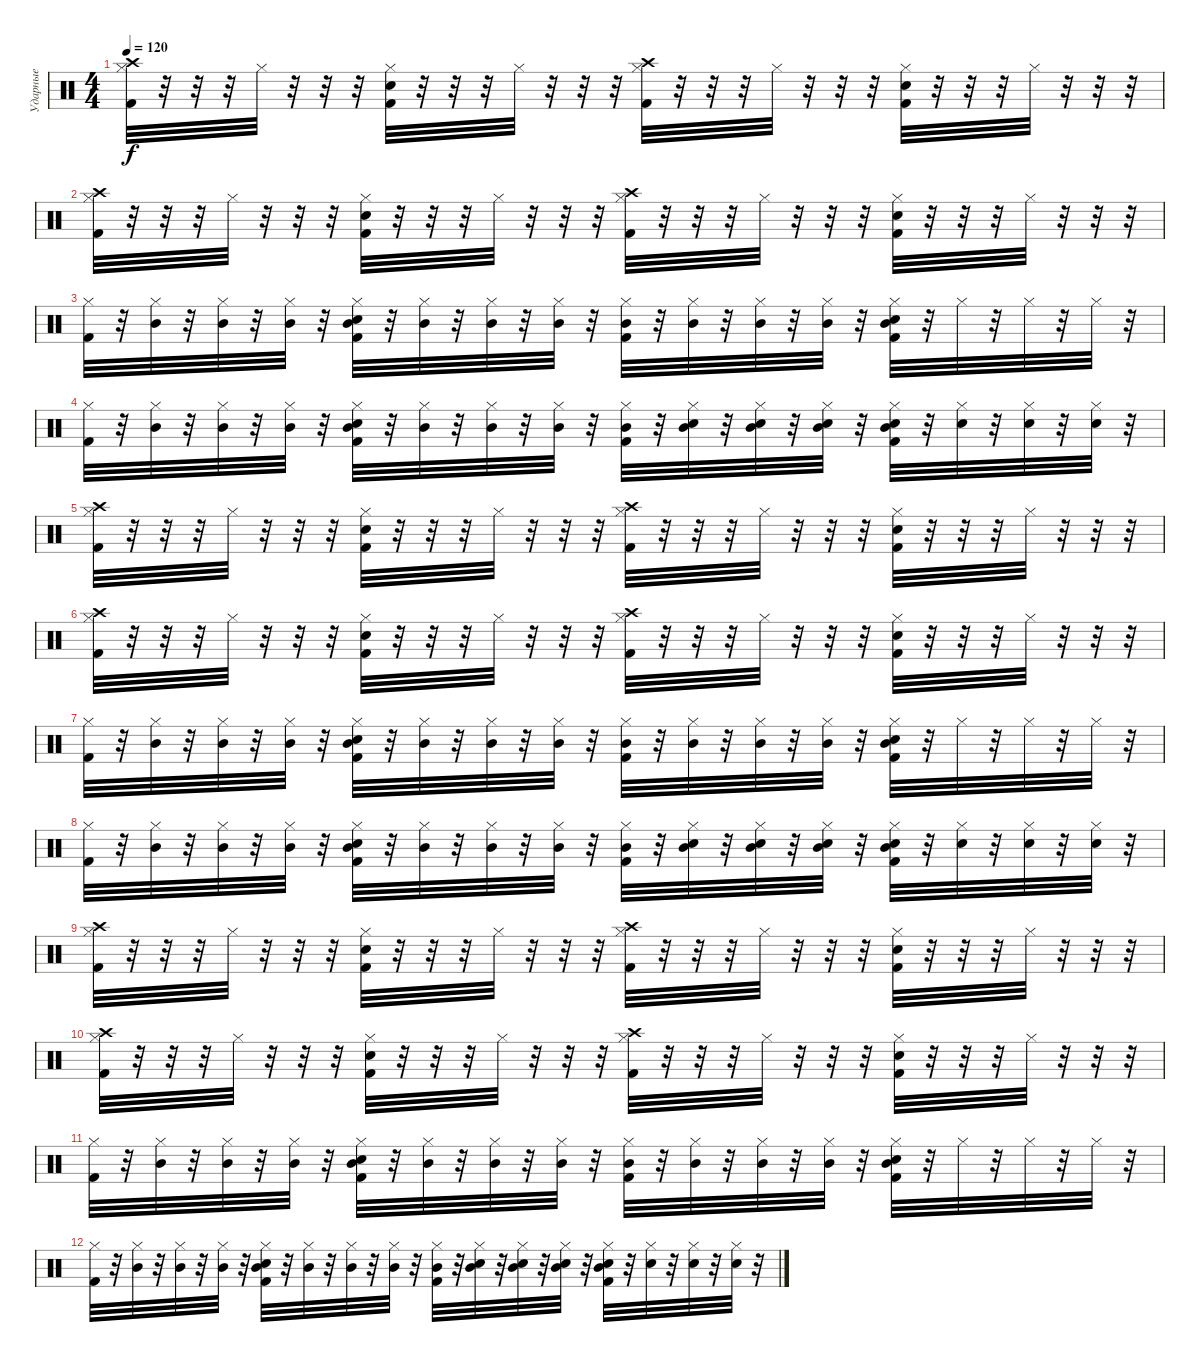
\track ("Ударные" "Ударные") {instrument percussion}
\staff {score}
\articulation defaults
\ts (4 4)
\tempo 120
\clef neutral
\ks c
("Crash high (hit)" "Hi-Hat (closed)" "Kick (hit) 2").32{dy f} r.32 r.32 r.32 "Hi-Hat (closed)".32 r.32 r.32 r.32 ("Hi-Hat (closed)" "Kick (hit) 2" "Snare (hit) 2").32 r.32 r.32 r.32 "Hi-Hat (closed)".32 r.32 r.32 r.32 ("Crash high (hit)" "Hi-Hat (closed)" "Kick (hit) 2").32 r.32 r.32 r.32 "Hi-Hat (closed)".32 r.32 r.32 r.32 ("Snare (hit) 2" "Kick (hit) 2" "Hi-Hat (closed)").32 r.32 r.32 r.32 "Hi-Hat (closed)".32 r.32 r.32 r.32 |
("Crash high (hit)" "Hi-Hat (closed)" "Kick (hit) 2").32 r.32 r.32 r.32 "Hi-Hat (closed)".32 r.32 r.32 r.32 ("Hi-Hat (closed)" "Kick (hit) 2" "Snare (hit) 2").32 r.32 r.32 r.32 "Hi-Hat (closed)".32 r.32 r.32 r.32 ("Crash high (hit)" "Hi-Hat (closed)" "Kick (hit) 2").32 r.32 r.32 r.32 "Hi-Hat (closed)".32 r.32 r.32 r.32 ("Snare (hit) 2" "Kick (hit) 2" "Hi-Hat (closed)").32 r.32 r.32 r.32 "Hi-Hat (closed)".32 r.32 r.32 r.32 |
("Hi-Hat (closed)" "Kick (hit) 2").32 r.32 ("Hi-Hat (closed)" "Mid Tom (hit)").32 r.32 ("Hi-Hat (closed)" "Mid Tom (hit)").32 r.32 ("Hi-Hat (closed)" "Mid Tom (hit)").32 r.32 ("Hi-Hat (closed)" "Kick (hit) 2" "Snare (hit) 2" "Mid Tom (hit)").32 r.32 ("Hi-Hat (closed)" "Mid Tom (hit)").32 r.32 ("Hi-Hat (closed)" "Mid Tom (hit)").32 r.32 ("Hi-Hat (closed)" "Mid Tom (hit)").32 r.32 ("Hi-Hat (closed)" "Kick (hit) 2" "Mid Tom (hit)").32 r.32 ("Hi-Hat (closed)" "Mid Tom (hit)").32 r.32 ("Hi-Hat (closed)" "Mid Tom (hit)").32 r.32 ("Hi-Hat (closed)" "Mid Tom (hit)").32 r.32 ("Snare (hit) 2" "Kick (hit) 2" "Hi-Hat (closed)" "Mid Tom (hit)").32 r.32 "Hi-Hat (closed)".32 r.32 "Hi-Hat (closed)".32 r.32 "Hi-Hat (closed)".32 r.32 |
("Hi-Hat (closed)" "Kick (hit) 2").32 r.32 ("Hi-Hat (closed)" "Mid Tom (hit)").32 r.32 ("Hi-Hat (closed)" "Mid Tom (hit)").32 r.32 ("Hi-Hat (closed)" "Mid Tom (hit)").32 r.32 ("Hi-Hat (closed)" "Kick (hit) 2" "Snare (hit) 2" "Mid Tom (hit)").32 r.32 ("Hi-Hat (closed)" "Mid Tom (hit)").32 r.32 ("Hi-Hat (closed)" "Mid Tom (hit)").32 r.32 ("Hi-Hat (closed)" "Mid Tom (hit)").32 r.32 ("Hi-Hat (closed)" "Kick (hit) 2" "Mid Tom (hit)").32 r.32 ("Snare (hit) 2" "Hi-Hat (closed)" "Mid Tom (hit)").32 r.32 ("Snare (hit) 2" "Hi-Hat (closed)" "Mid Tom (hit)").32 r.32 ("Snare (hit) 2" "Hi-Hat (closed)" "Mid Tom (hit)").32 r.32 ("Snare (hit) 2" "Kick (hit) 2" "Hi-Hat (closed)" "Mid Tom (hit)").32 r.32 ("Snare (hit) 2" "Hi-Hat (closed)").32 r.32 ("Snare (hit) 2" "Hi-Hat (closed)").32 r.32 ("Snare (hit) 2" "Hi-Hat (closed)").32 r.32 |
("Crash high (hit)" "Hi-Hat (closed)" "Kick (hit) 2").32 r.32 r.32 r.32 "Hi-Hat (closed)".32 r.32 r.32 r.32 ("Hi-Hat (closed)" "Kick (hit) 2" "Snare (hit) 2").32 r.32 r.32 r.32 "Hi-Hat (closed)".32 r.32 r.32 r.32 ("Crash high (hit)" "Hi-Hat (closed)" "Kick (hit) 2").32 r.32 r.32 r.32 "Hi-Hat (closed)".32 r.32 r.32 r.32 ("Snare (hit) 2" "Kick (hit) 2" "Hi-Hat (closed)").32 r.32 r.32 r.32 "Hi-Hat (closed)".32 r.32 r.32 r.32 |
("Crash high (hit)" "Hi-Hat (closed)" "Kick (hit) 2").32 r.32 r.32 r.32 "Hi-Hat (closed)".32 r.32 r.32 r.32 ("Hi-Hat (closed)" "Kick (hit) 2" "Snare (hit) 2").32 r.32 r.32 r.32 "Hi-Hat (closed)".32 r.32 r.32 r.32 ("Crash high (hit)" "Hi-Hat (closed)" "Kick (hit) 2").32 r.32 r.32 r.32 "Hi-Hat (closed)".32 r.32 r.32 r.32 ("Snare (hit) 2" "Kick (hit) 2" "Hi-Hat (closed)").32 r.32 r.32 r.32 "Hi-Hat (closed)".32 r.32 r.32 r.32 |
("Hi-Hat (closed)" "Kick (hit) 2").32 r.32 ("Hi-Hat (closed)" "Mid Tom (hit)").32 r.32 ("Hi-Hat (closed)" "Mid Tom (hit)").32 r.32 ("Hi-Hat (closed)" "Mid Tom (hit)").32 r.32 ("Hi-Hat (closed)" "Kick (hit) 2" "Snare (hit) 2" "Mid Tom (hit)").32 r.32 ("Hi-Hat (closed)" "Mid Tom (hit)").32 r.32 ("Hi-Hat (closed)" "Mid Tom (hit)").32 r.32 ("Hi-Hat (closed)" "Mid Tom (hit)").32 r.32 ("Hi-Hat (closed)" "Kick (hit) 2" "Mid Tom (hit)").32 r.32 ("Hi-Hat (closed)" "Mid Tom (hit)").32 r.32 ("Hi-Hat (closed)" "Mid Tom (hit)").32 r.32 ("Hi-Hat (closed)" "Mid Tom (hit)").32 r.32 ("Snare (hit) 2" "Kick (hit) 2" "Hi-Hat (closed)" "Mid Tom (hit)").32 r.32 "Hi-Hat (closed)".32 r.32 "Hi-Hat (closed)".32 r.32 "Hi-Hat (closed)".32 r.32 |
("Hi-Hat (closed)" "Kick (hit) 2").32 r.32 ("Hi-Hat (closed)" "Mid Tom (hit)").32 r.32 ("Hi-Hat (closed)" "Mid Tom (hit)").32 r.32 ("Hi-Hat (closed)" "Mid Tom (hit)").32 r.32 ("Hi-Hat (closed)" "Kick (hit) 2" "Snare (hit) 2" "Mid Tom (hit)").32 r.32 ("Hi-Hat (closed)" "Mid Tom (hit)").32 r.32 ("Hi-Hat (closed)" "Mid Tom (hit)").32 r.32 ("Hi-Hat (closed)" "Mid Tom (hit)").32 r.32 ("Hi-Hat (closed)" "Kick (hit) 2" "Mid Tom (hit)").32 r.32 ("Snare (hit) 2" "Hi-Hat (closed)" "Mid Tom (hit)").32 r.32 ("Snare (hit) 2" "Hi-Hat (closed)" "Mid Tom (hit)").32 r.32 ("Snare (hit) 2" "Hi-Hat (closed)" "Mid Tom (hit)").32 r.32 ("Snare (hit) 2" "Kick (hit) 2" "Hi-Hat (closed)" "Mid Tom (hit)").32 r.32 ("Snare (hit) 2" "Hi-Hat (closed)").32 r.32 ("Snare (hit) 2" "Hi-Hat (closed)").32 r.32 ("Snare (hit) 2" "Hi-Hat (closed)").32 r.32 |
("Crash high (hit)" "Hi-Hat (closed)" "Kick (hit) 2").32 r.32 r.32 r.32 "Hi-Hat (closed)".32 r.32 r.32 r.32 ("Hi-Hat (closed)" "Kick (hit) 2" "Snare (hit) 2").32 r.32 r.32 r.32 "Hi-Hat (closed)".32 r.32 r.32 r.32 ("Crash high (hit)" "Hi-Hat (closed)" "Kick (hit) 2").32 r.32 r.32 r.32 "Hi-Hat (closed)".32 r.32 r.32 r.32 ("Snare (hit) 2" "Kick (hit) 2" "Hi-Hat (closed)").32 r.32 r.32 r.32 "Hi-Hat (closed)".32 r.32 r.32 r.32 |
("Crash high (hit)" "Hi-Hat (closed)" "Kick (hit) 2").32 r.32 r.32 r.32 "Hi-Hat (closed)".32 r.32 r.32 r.32 ("Hi-Hat (closed)" "Kick (hit) 2" "Snare (hit) 2").32 r.32 r.32 r.32 "Hi-Hat (closed)".32 r.32 r.32 r.32 ("Crash high (hit)" "Hi-Hat (closed)" "Kick (hit) 2").32 r.32 r.32 r.32 "Hi-Hat (closed)".32 r.32 r.32 r.32 ("Snare (hit) 2" "Kick (hit) 2" "Hi-Hat (closed)").32 r.32 r.32 r.32 "Hi-Hat (closed)".32 r.32 r.32 r.32 |
("Hi-Hat (closed)" "Kick (hit) 2").32 r.32 ("Hi-Hat (closed)" "Mid Tom (hit)").32 r.32 ("Hi-Hat (closed)" "Mid Tom (hit)").32 r.32 ("Hi-Hat (closed)" "Mid Tom (hit)").32 r.32 ("Hi-Hat (closed)" "Kick (hit) 2" "Snare (hit) 2" "Mid Tom (hit)").32 r.32 ("Hi-Hat (closed)" "Mid Tom (hit)").32 r.32 ("Hi-Hat (closed)" "Mid Tom (hit)").32 r.32 ("Hi-Hat (closed)" "Mid Tom (hit)").32 r.32 ("Hi-Hat (closed)" "Kick (hit) 2" "Mid Tom (hit)").32 r.32 ("Hi-Hat (closed)" "Mid Tom (hit)").32 r.32 ("Hi-Hat (closed)" "Mid Tom (hit)").32 r.32 ("Hi-Hat (closed)" "Mid Tom (hit)").32 r.32 ("Snare (hit) 2" "Kick (hit) 2" "Hi-Hat (closed)" "Mid Tom (hit)").32 r.32 "Hi-Hat (closed)".32 r.32 "Hi-Hat (closed)".32 r.32 "Hi-Hat (closed)".32 r.32 |
("Hi-Hat (closed)" "Kick (hit) 2").32 r.32 ("Hi-Hat (closed)" "Mid Tom (hit)").32 r.32 ("Hi-Hat (closed)" "Mid Tom (hit)").32 r.32 ("Hi-Hat (closed)" "Mid Tom (hit)").32 r.32 ("Hi-Hat (closed)" "Kick (hit) 2" "Snare (hit) 2" "Mid Tom (hit)").32 r.32 ("Hi-Hat (closed)" "Mid Tom (hit)").32 r.32 ("Hi-Hat (closed)" "Mid Tom (hit)").32 r.32 ("Hi-Hat (closed)" "Mid Tom (hit)").32 r.32 ("Hi-Hat (closed)" "Kick (hit) 2" "Mid Tom (hit)").32 r.32 ("Snare (hit) 2" "Hi-Hat (closed)" "Mid Tom (hit)").32 r.32 ("Snare (hit) 2" "Hi-Hat (closed)" "Mid Tom (hit)").32 r.32 ("Snare (hit) 2" "Hi-Hat (closed)" "Mid Tom (hit)").32 r.32 ("Snare (hit) 2" "Kick (hit) 2" "Hi-Hat (closed)" "Mid Tom (hit)").32 r.32 ("Snare (hit) 2" "Hi-Hat (closed)").32 r.32 ("Snare (hit) 2" "Hi-Hat (closed)").32 r.32 ("Snare (hit) 2" "Hi-Hat (closed)").32 r.32
